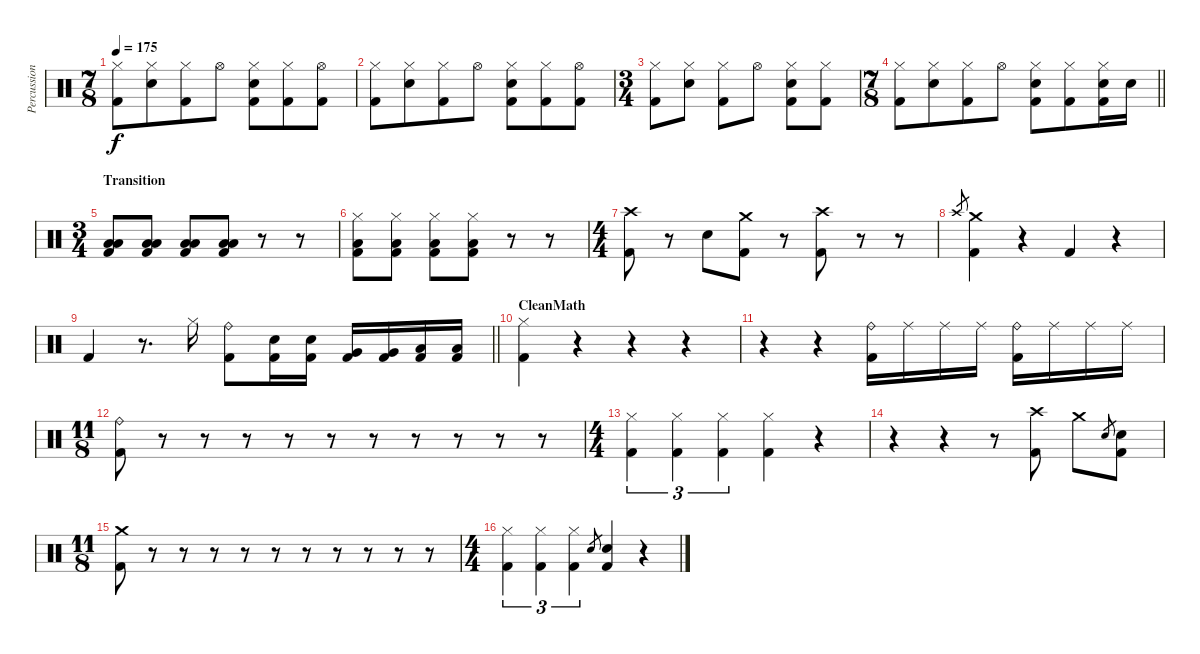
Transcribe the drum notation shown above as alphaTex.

\track ("Percussion" "Percussion") {instrument percussion}
\staff {score}
\articulation defaults
\ts (7 8)
\tempo 175
\clef neutral
\ks c
("Hi-Hat (closed)" "Kick (hit) 2").8{dy f} ("Hi-Hat (closed)" "Electric Snare (hit)").8 ("Hi-Hat (closed)" "Kick (hit) 2").8 "Hi-Hat (open)".8 ("Hi-Hat (closed)" "Electric Snare (hit)" "Kick (hit) 2").8 ("Hi-Hat (closed)" "Kick (hit) 2").8 ("Hi-Hat (open)" "Kick (hit) 2").8 |
("Hi-Hat (closed)" "Kick (hit) 2").8 ("Hi-Hat (closed)" "Electric Snare (hit)").8 ("Hi-Hat (closed)" "Kick (hit) 2").8 "Hi-Hat (open)".8 ("Hi-Hat (closed)" "Electric Snare (hit)" "Kick (hit) 2").8 ("Hi-Hat (closed)" "Kick (hit) 2").8 ("Hi-Hat (open)" "Kick (hit) 2").8 |
\ts (3 4)
("Hi-Hat (closed)" "Kick (hit) 2").8 ("Hi-Hat (closed)" "Electric Snare (hit)").8 ("Hi-Hat (closed)" "Kick (hit) 2").8 "Hi-Hat (open)".8 ("Hi-Hat (closed)" "Electric Snare (hit)" "Kick (hit) 2").8 ("Hi-Hat (closed)" "Kick (hit) 2").8 |
\ts (7 8)
\barLineRight lightlight
("Hi-Hat (closed)" "Kick (hit) 2").8 ("Hi-Hat (closed)" "Electric Snare (hit)").8 ("Hi-Hat (closed)" "Kick (hit) 2").8 "Hi-Hat (open)".8 ("Hi-Hat (closed)" "Electric Snare (hit)" "Kick (hit) 2").8 ("Hi-Hat (closed)" "Kick (hit) 2").8 ("Hi-Hat (closed)" "Electric Snare (hit)" "Kick (hit) 2").16 "Electric Snare (hit)".16 |
\ts (3 4)
\section ("" "Transition")
("Low Tom (hit)" "Low Floor Tom (hit)" "Kick (hit) 2").8 ("Low Tom (hit)" "Low Floor Tom (hit)" "Kick (hit) 2").8 ("Low Tom (hit)" "Low Floor Tom (hit)" "Kick (hit) 2").8 ("Low Tom (hit)" "Low Floor Tom (hit)" "Kick (hit) 2").8 r.8 r.8 |
("Hi-Hat (closed)" "Low Floor Tom (hit)" "Kick (hit) 2").8 ("Hi-Hat (closed)" "Low Floor Tom (hit)" "Kick (hit) 2").8 ("Hi-Hat (closed)" "Low Floor Tom (hit)" "Kick (hit) 2").8 ("Hi-Hat (closed)" "Low Floor Tom (hit)" "Kick (hit) 2").8 r.8 r.8 |
\ts (4 4)
("Crash high (hit)" "Kick (hit) 2").8 r.8 "Electric Snare (hit)".8 ("Crash medium (hit)" "Kick (hit) 2").8 r.8 ("Crash high (hit)" "Kick (hit) 2").8 r.8 r.8 |
"Crash high (hit)".8{gr} ("Crash medium (hit)" "Kick (hit) 2").4 r.4 "Kick (hit) 2".4 r.4 |
\barLineRight lightlight "Kick (hit) 2".4
r.8{d} "Hi-Hat (closed)".16 ("Ride (bell)" "Kick (hit) 2").8 ("Electric Snare (hit)" "Kick (hit) 2").16 ("Electric Snare (hit)" "Kick (hit) 2").16 ("Very Low Tom (hit)" "Kick (hit) 2").16 ("Very Low Tom (hit)" "Kick (hit) 2").16 ("Low Floor Tom (hit)" "Kick (hit) 2").16 ("Low Floor Tom (hit)" "Kick (hit) 2").16 |
\section ("" "CleanMath")
("Hi-Hat (closed)" "Kick (hit) 2").4 r.4 r.4 r.4 |
r.4 r.4 ("Ride (bell)" "Kick (hit) 2").16 "Ride (middle)".16 "Ride (middle)".16 "Ride (middle)".16 ("Ride (bell)" "Kick (hit) 2").16 "Ride (middle)".16 "Ride (middle)".16 "Ride (middle)".16 |
\ts (11 8)
("Ride (bell)" "Kick (hit) 2").8 r.8 r.8 r.8 r.8 r.8 r.8 r.8 r.8 r.8 r.8 |
\ts (4 4)
("Hi-Hat (closed)" "Kick (hit) 2").4{tu (3 2)} ("Hi-Hat (closed)" "Kick (hit) 2").4{tu (3 2)} ("Hi-Hat (closed)" "Kick (hit) 2").4{tu (3 2)} ("Hi-Hat (closed)" "Kick (hit) 2").4 r.4 |
r.4 r.4 r.8 ("Crash high (hit)" "Kick (hit) 2").8 "Crash medium (hit)".8 "Electric Snare (hit)".8{gr} ("Electric Snare (hit)" "Kick (hit) 2").8 |
\ts (11 8)
("Crash medium (hit)" "Kick (hit) 2").8 r.8 r.8 r.8 r.8 r.8 r.8 r.8 r.8 r.8 r.8 |
\ts (4 4)
("Hi-Hat (closed)" "Kick (hit) 2").4{tu (3 2)} ("Hi-Hat (closed)" "Kick (hit) 2").4{tu (3 2)} ("Hi-Hat (closed)" "Kick (hit) 2").4{tu (3 2)} "Electric Snare (hit)".8{gr} ("Electric Snare (hit)" "Kick (hit) 2").4 r.4
